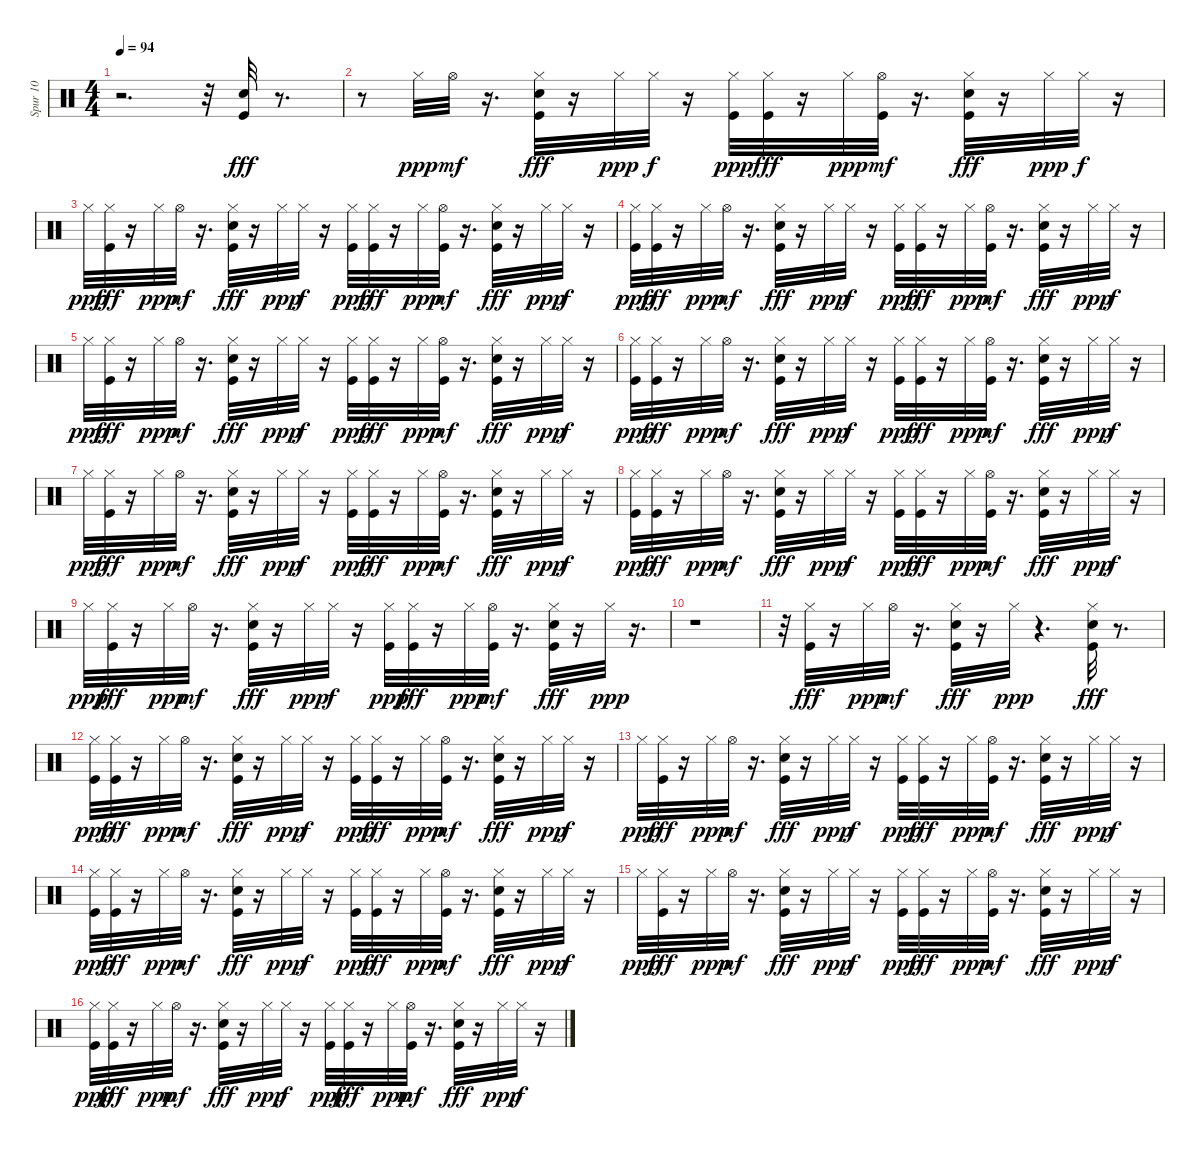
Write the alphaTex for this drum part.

\track ("Spur 10" "Spur 10") {instrument percussion}
\staff {score}
\articulation defaults
\ts (4 4)
\tempo 94
\clef neutral
\ks c
r.2{d dy ppp} r.32 ("Kick (hit)" "Electric Snare (hit)").32{dy fff} r.8{d} |
r.8 "Hi-Hat (closed)".32{dy ppp} "Hi-Hat (open)".32{dy mf} r.16{d} ("Kick (hit)" "Electric Snare (hit)" "Hi-Hat (closed)").32{dy fff} r.16 "Hi-Hat (closed)".32{dy ppp} "Hi-Hat (closed)".32{dy f} r.16 ("Kick (hit)" "Hi-Hat (closed)").32{dy ppp} ("Kick (hit)" "Hi-Hat (closed)").32{dy fff} r.16 "Hi-Hat (closed)".32{dy ppp} ("Kick (hit)" "Hi-Hat (open)").32{dy mf} r.16{d} ("Kick (hit)" "Electric Snare (hit)" "Hi-Hat (closed)").32{dy fff} r.16 "Hi-Hat (closed)".32{dy ppp} "Hi-Hat (closed)".32{dy f} r.16 |
"Hi-Hat (closed)".32{dy ppp} ("Kick (hit)" "Hi-Hat (closed)").32{dy fff} r.16 "Hi-Hat (closed)".32{dy ppp} "Hi-Hat (open)".32{dy mf} r.16{d} ("Kick (hit)" "Electric Snare (hit)" "Hi-Hat (closed)").32{dy fff} r.16 "Hi-Hat (closed)".32{dy ppp} "Hi-Hat (closed)".32{dy f} r.16 ("Kick (hit)" "Hi-Hat (closed)").32{dy ppp} ("Kick (hit)" "Hi-Hat (closed)").32{dy fff} r.16 "Hi-Hat (closed)".32{dy ppp} ("Kick (hit)" "Hi-Hat (open)").32{dy mf} r.16{d} ("Kick (hit)" "Electric Snare (hit)" "Hi-Hat (closed)").32{dy fff} r.16 "Hi-Hat (closed)".32{dy ppp} "Hi-Hat (closed)".32{dy f} r.16 |
("Kick (hit)" "Hi-Hat (closed)").32{dy ppp} ("Kick (hit)" "Hi-Hat (closed)").32{dy fff} r.16 "Hi-Hat (closed)".32{dy ppp} "Hi-Hat (open)".32{dy mf} r.16{d} ("Kick (hit)" "Electric Snare (hit)" "Hi-Hat (closed)").32{dy fff} r.16 "Hi-Hat (closed)".32{dy ppp} "Hi-Hat (closed)".32{dy f} r.16 ("Kick (hit)" "Hi-Hat (closed)").32{dy ppp} ("Kick (hit)" "Hi-Hat (closed)").32{dy fff} r.16 "Hi-Hat (closed)".32{dy ppp} ("Kick (hit)" "Hi-Hat (open)").32{dy mf} r.16{d} ("Kick (hit)" "Electric Snare (hit)" "Hi-Hat (closed)").32{dy fff} r.16 "Hi-Hat (closed)".32{dy ppp} "Hi-Hat (closed)".32{dy f} r.16 |
"Hi-Hat (closed)".32{dy ppp} ("Kick (hit)" "Hi-Hat (closed)").32{dy fff} r.16 "Hi-Hat (closed)".32{dy ppp} "Hi-Hat (open)".32{dy mf} r.16{d} ("Kick (hit)" "Electric Snare (hit)" "Hi-Hat (closed)").32{dy fff} r.16 "Hi-Hat (closed)".32{dy ppp} "Hi-Hat (closed)".32{dy f} r.16 ("Kick (hit)" "Hi-Hat (closed)").32{dy ppp} ("Kick (hit)" "Hi-Hat (closed)").32{dy fff} r.16 "Hi-Hat (closed)".32{dy ppp} ("Kick (hit)" "Hi-Hat (open)").32{dy mf} r.16{d} ("Kick (hit)" "Electric Snare (hit)" "Hi-Hat (closed)").32{dy fff} r.16 "Hi-Hat (closed)".32{dy ppp} "Hi-Hat (closed)".32{dy f} r.16 |
("Kick (hit)" "Hi-Hat (closed)").32{dy ppp} ("Kick (hit)" "Hi-Hat (closed)").32{dy fff} r.16 "Hi-Hat (closed)".32{dy ppp} "Hi-Hat (open)".32{dy mf} r.16{d} ("Kick (hit)" "Electric Snare (hit)" "Hi-Hat (closed)").32{dy fff} r.16 "Hi-Hat (closed)".32{dy ppp} "Hi-Hat (closed)".32{dy f} r.16 ("Kick (hit)" "Hi-Hat (closed)").32{dy ppp} ("Kick (hit)" "Hi-Hat (closed)").32{dy fff} r.16 "Hi-Hat (closed)".32{dy ppp} ("Kick (hit)" "Hi-Hat (open)").32{dy mf} r.16{d} ("Kick (hit)" "Electric Snare (hit)" "Hi-Hat (closed)").32{dy fff} r.16 "Hi-Hat (closed)".32{dy ppp} "Hi-Hat (closed)".32{dy f} r.16 |
"Hi-Hat (closed)".32{dy ppp} ("Kick (hit)" "Hi-Hat (closed)").32{dy fff} r.16 "Hi-Hat (closed)".32{dy ppp} "Hi-Hat (open)".32{dy mf} r.16{d} ("Kick (hit)" "Electric Snare (hit)" "Hi-Hat (closed)").32{dy fff} r.16 "Hi-Hat (closed)".32{dy ppp} "Hi-Hat (closed)".32{dy f} r.16 ("Kick (hit)" "Hi-Hat (closed)").32{dy ppp} ("Kick (hit)" "Hi-Hat (closed)").32{dy fff} r.16 "Hi-Hat (closed)".32{dy ppp} ("Kick (hit)" "Hi-Hat (open)").32{dy mf} r.16{d} ("Kick (hit)" "Electric Snare (hit)" "Hi-Hat (closed)").32{dy fff} r.16 "Hi-Hat (closed)".32{dy ppp} "Hi-Hat (closed)".32{dy f} r.16 |
("Kick (hit)" "Hi-Hat (closed)").32{dy ppp} ("Kick (hit)" "Hi-Hat (closed)").32{dy fff} r.16 "Hi-Hat (closed)".32{dy ppp} "Hi-Hat (open)".32{dy mf} r.16{d} ("Kick (hit)" "Electric Snare (hit)" "Hi-Hat (closed)").32{dy fff} r.16 "Hi-Hat (closed)".32{dy ppp} "Hi-Hat (closed)".32{dy f} r.16 ("Kick (hit)" "Hi-Hat (closed)").32{dy ppp} ("Kick (hit)" "Hi-Hat (closed)").32{dy fff} r.16 "Hi-Hat (closed)".32{dy ppp} ("Kick (hit)" "Hi-Hat (open)").32{dy mf} r.16{d} ("Kick (hit)" "Electric Snare (hit)" "Hi-Hat (closed)").32{dy fff} r.16 "Hi-Hat (closed)".32{dy ppp} "Hi-Hat (closed)".32{dy f} r.16 |
"Hi-Hat (closed)".32{dy ppp} ("Kick (hit)" "Hi-Hat (closed)").32{dy fff} r.16 "Hi-Hat (closed)".32{dy ppp} "Hi-Hat (open)".32{dy mf} r.16{d} ("Kick (hit)" "Electric Snare (hit)" "Hi-Hat (closed)").32{dy fff} r.16 "Hi-Hat (closed)".32{dy ppp} "Hi-Hat (closed)".32{dy f} r.16 ("Kick (hit)" "Hi-Hat (closed)").32{dy ppp} ("Kick (hit)" "Hi-Hat (closed)").32{dy fff} r.16 "Hi-Hat (closed)".32{dy ppp} ("Kick (hit)" "Hi-Hat (open)").32{dy mf} r.16{d} ("Kick (hit)" "Electric Snare (hit)" "Hi-Hat (closed)").32{dy fff} r.16 "Hi-Hat (closed)".32{dy ppp} r.16{d} |
r.1 |
r.32 ("Kick (hit)" "Hi-Hat (closed)").32{dy fff} r.16 "Hi-Hat (closed)".32{dy ppp} "Hi-Hat (open)".32{dy mf} r.16{d} ("Kick (hit)" "Electric Snare (hit)" "Hi-Hat (closed)").32{dy fff} r.16 "Hi-Hat (closed)".32{dy ppp} r.4{d} ("Kick (hit)" "Electric Snare (hit)" "Hi-Hat (closed)").32{dy fff} r.8{d} |
("Kick (hit)" "Hi-Hat (closed)").32{dy ppp} ("Kick (hit)" "Hi-Hat (closed)").32{dy fff} r.16 "Hi-Hat (closed)".32{dy ppp} "Hi-Hat (open)".32{dy mf} r.16{d} ("Kick (hit)" "Electric Snare (hit)" "Hi-Hat (closed)").32{dy fff} r.16 "Hi-Hat (closed)".32{dy ppp} "Hi-Hat (closed)".32{dy f} r.16 ("Kick (hit)" "Hi-Hat (closed)").32{dy ppp} ("Kick (hit)" "Hi-Hat (closed)").32{dy fff} r.16 "Hi-Hat (closed)".32{dy ppp} ("Kick (hit)" "Hi-Hat (open)").32{dy mf} r.16{d} ("Kick (hit)" "Electric Snare (hit)" "Hi-Hat (closed)").32{dy fff} r.16 "Hi-Hat (closed)".32{dy ppp} "Hi-Hat (closed)".32{dy f} r.16 |
"Hi-Hat (closed)".32{dy ppp} ("Kick (hit)" "Hi-Hat (closed)").32{dy fff} r.16 "Hi-Hat (closed)".32{dy ppp} "Hi-Hat (open)".32{dy mf} r.16{d} ("Kick (hit)" "Electric Snare (hit)" "Hi-Hat (closed)").32{dy fff} r.16 "Hi-Hat (closed)".32{dy ppp} "Hi-Hat (closed)".32{dy f} r.16 ("Kick (hit)" "Hi-Hat (closed)").32{dy ppp} ("Kick (hit)" "Hi-Hat (closed)").32{dy fff} r.16 "Hi-Hat (closed)".32{dy ppp} ("Kick (hit)" "Hi-Hat (open)").32{dy mf} r.16{d} ("Kick (hit)" "Electric Snare (hit)" "Hi-Hat (closed)").32{dy fff} r.16 "Hi-Hat (closed)".32{dy ppp} "Hi-Hat (closed)".32{dy f} r.16 |
("Kick (hit)" "Hi-Hat (closed)").32{dy ppp} ("Kick (hit)" "Hi-Hat (closed)").32{dy fff} r.16 "Hi-Hat (closed)".32{dy ppp} "Hi-Hat (open)".32{dy mf} r.16{d} ("Kick (hit)" "Electric Snare (hit)" "Hi-Hat (closed)").32{dy fff} r.16 "Hi-Hat (closed)".32{dy ppp} "Hi-Hat (closed)".32{dy f} r.16 ("Kick (hit)" "Hi-Hat (closed)").32{dy ppp} ("Kick (hit)" "Hi-Hat (closed)").32{dy fff} r.16 "Hi-Hat (closed)".32{dy ppp} ("Kick (hit)" "Hi-Hat (open)").32{dy mf} r.16{d} ("Kick (hit)" "Electric Snare (hit)" "Hi-Hat (closed)").32{dy fff} r.16 "Hi-Hat (closed)".32{dy ppp} "Hi-Hat (closed)".32{dy f} r.16 |
"Hi-Hat (closed)".32{dy ppp} ("Kick (hit)" "Hi-Hat (closed)").32{dy fff} r.16 "Hi-Hat (closed)".32{dy ppp} "Hi-Hat (open)".32{dy mf} r.16{d} ("Kick (hit)" "Electric Snare (hit)" "Hi-Hat (closed)").32{dy fff} r.16 "Hi-Hat (closed)".32{dy ppp} "Hi-Hat (closed)".32{dy f} r.16 ("Kick (hit)" "Hi-Hat (closed)").32{dy ppp} ("Kick (hit)" "Hi-Hat (closed)").32{dy fff} r.16 "Hi-Hat (closed)".32{dy ppp} ("Kick (hit)" "Hi-Hat (open)").32{dy mf} r.16{d} ("Kick (hit)" "Electric Snare (hit)" "Hi-Hat (closed)").32{dy fff} r.16 "Hi-Hat (closed)".32{dy ppp} "Hi-Hat (closed)".32{dy f} r.16 |
("Kick (hit)" "Hi-Hat (closed)").32{dy ppp} ("Kick (hit)" "Hi-Hat (closed)").32{dy fff} r.16 "Hi-Hat (closed)".32{dy ppp} "Hi-Hat (open)".32{dy mf} r.16{d} ("Kick (hit)" "Electric Snare (hit)" "Hi-Hat (closed)").32{dy fff} r.16 "Hi-Hat (closed)".32{dy ppp} "Hi-Hat (closed)".32{dy f} r.16 ("Kick (hit)" "Hi-Hat (closed)").32{dy ppp} ("Kick (hit)" "Hi-Hat (closed)").32{dy fff} r.16 "Hi-Hat (closed)".32{dy ppp} ("Kick (hit)" "Hi-Hat (open)").32{dy mf} r.16{d} ("Kick (hit)" "Electric Snare (hit)" "Hi-Hat (closed)").32{dy fff} r.16 "Hi-Hat (closed)".32{dy ppp} "Hi-Hat (closed)".32{dy f} r.16
